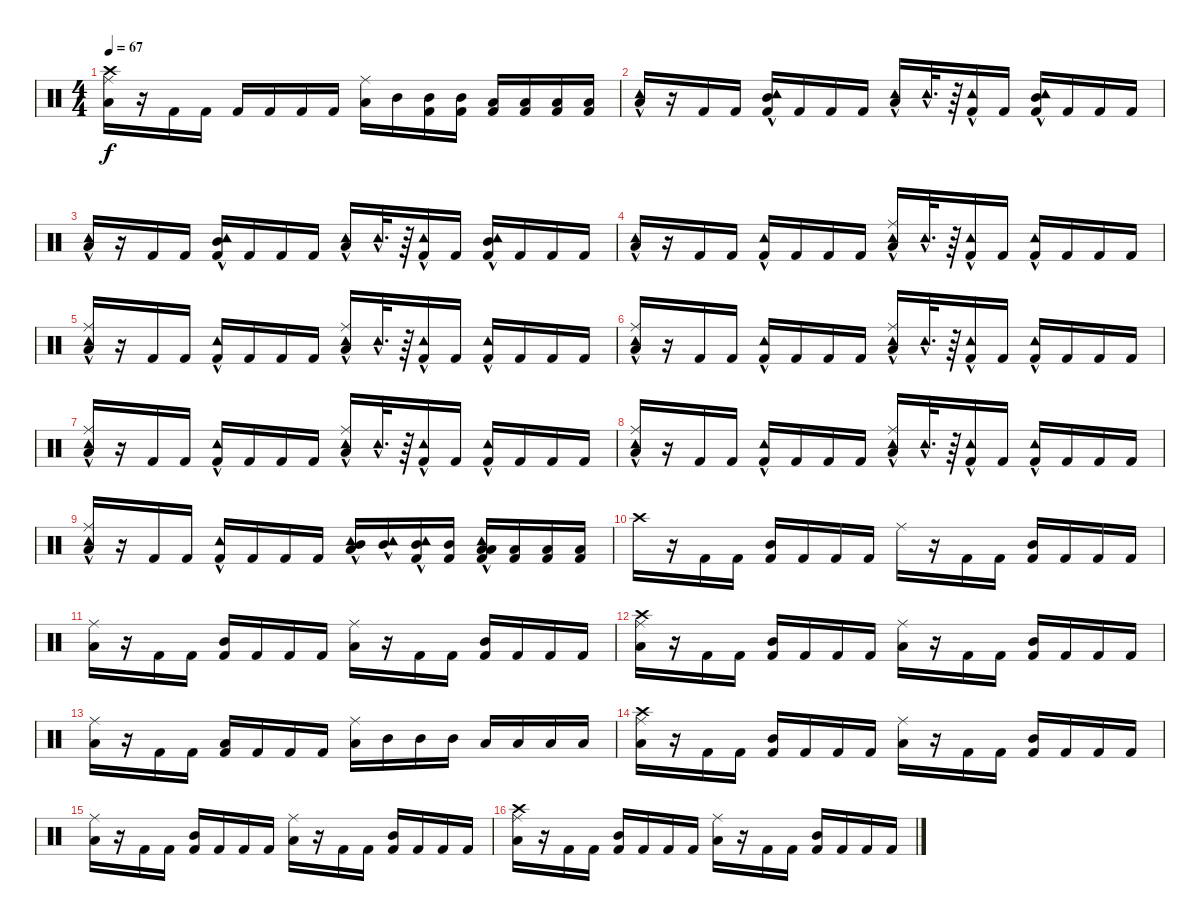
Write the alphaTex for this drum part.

\track "" {instrument percussion}
\staff {score}
\articulation defaults
\ts (4 4)
\tempo 67
\clef neutral
\ks c
("Low Floor Tom (hit)" "Crash high (hit)" "Ride (middle)").16{dy f} r.16 "Kick (hit) 2".16 "Kick (hit) 2".16 "Kick (hit) 2".16 "Kick (hit) 2".16 "Kick (hit) 2".16 "Kick (hit) 2".16 ("Low Floor Tom (hit)" "Ride (middle)").16 "Mid Tom (hit)".16 ("Kick (hit) 2" "Mid Tom (hit)").16 ("Kick (hit) 2" "Mid Tom (hit)").16 ("Kick (hit) 2" "Low Floor Tom (hit)").16 ("Kick (hit) 2" "Low Tom (hit)").16 ("Kick (hit) 2" "Low Tom (hit)").16 ("Kick (hit) 2" "Low Tom (hit)").16 |
("Low Floor Tom (hit)" "Tambourine (hit)"{hac}).16 r.16 "Kick (hit) 2".16 "Kick (hit) 2".16 ("Kick (hit) 2" "Mid Tom (hit)" "Tambourine (hit)"{hac}).16 "Kick (hit) 2".16 "Kick (hit) 2".16 "Kick (hit) 2".16 ("Low Floor Tom (hit)" "Tambourine (hit)"{hac}).16 "Tambourine (hit)"{hac}.32{d} r.64 ("Kick (hit) 2" "Tambourine (hit)"{hac}).16 "Kick (hit) 2".16 ("Kick (hit) 2" "Mid Tom (hit)" "Tambourine (hit)"{hac}).16 "Kick (hit) 2".16 "Kick (hit) 2".16 "Kick (hit) 2".16 |
("Low Floor Tom (hit)" "Tambourine (hit)"{hac}).16 r.16 "Kick (hit) 2".16 "Kick (hit) 2".16 ("Kick (hit) 2" "Mid Tom (hit)" "Tambourine (hit)"{hac}).16 "Kick (hit) 2".16 "Kick (hit) 2".16 "Kick (hit) 2".16 ("Low Floor Tom (hit)" "Tambourine (hit)"{hac}).16 "Tambourine (hit)"{hac}.32{d} r.64 ("Kick (hit) 2" "Tambourine (hit)"{hac}).16 "Kick (hit) 2".16 ("Kick (hit) 2" "Mid Tom (hit)" "Tambourine (hit)"{hac}).16 "Kick (hit) 2".16 "Kick (hit) 2".16 "Kick (hit) 2".16 |
("Low Floor Tom (hit)" "Tambourine (hit)"{hac}).16 r.16 "Kick (hit) 2".16 "Kick (hit) 2".16 ("Kick (hit) 2" "Tambourine (hit)"{hac}).16 "Kick (hit) 2".16 "Kick (hit) 2".16 "Kick (hit) 2".16 ("Low Floor Tom (hit)" "Ride (middle)" "Tambourine (hit)"{hac}).16 "Tambourine (hit)"{hac}.32{d} r.64 ("Kick (hit) 2" "Tambourine (hit)"{hac}).16 "Kick (hit) 2".16 ("Kick (hit) 2" "Tambourine (hit)"{hac}).16 "Kick (hit) 2".16 "Kick (hit) 2".16 "Kick (hit) 2".16 |
("Low Floor Tom (hit)" "Ride (middle)" "Tambourine (hit)"{hac}).16 r.16 "Kick (hit) 2".16 "Kick (hit) 2".16 ("Kick (hit) 2" "Tambourine (hit)"{hac}).16 "Kick (hit) 2".16 "Kick (hit) 2".16 "Kick (hit) 2".16 ("Low Floor Tom (hit)" "Ride (middle)" "Tambourine (hit)"{hac}).16 "Tambourine (hit)"{hac}.32{d} r.64 ("Kick (hit) 2" "Tambourine (hit)"{hac}).16 "Kick (hit) 2".16 ("Kick (hit) 2" "Tambourine (hit)"{hac}).16 "Kick (hit) 2".16 "Kick (hit) 2".16 "Kick (hit) 2".16 |
("Low Floor Tom (hit)" "Ride (middle)" "Tambourine (hit)"{hac}).16 r.16 "Kick (hit) 2".16 "Kick (hit) 2".16 ("Kick (hit) 2" "Tambourine (hit)"{hac}).16 "Kick (hit) 2".16 "Kick (hit) 2".16 "Kick (hit) 2".16 ("Low Floor Tom (hit)" "Ride (middle)" "Tambourine (hit)"{hac}).16 "Tambourine (hit)"{hac}.32{d} r.64 ("Kick (hit) 2" "Tambourine (hit)"{hac}).16 "Kick (hit) 2".16 ("Kick (hit) 2" "Tambourine (hit)"{hac}).16 "Kick (hit) 2".16 "Kick (hit) 2".16 "Kick (hit) 2".16 |
("Low Floor Tom (hit)" "Ride (middle)" "Tambourine (hit)"{hac}).16 r.16 "Kick (hit) 2".16 "Kick (hit) 2".16 ("Kick (hit) 2" "Tambourine (hit)"{hac}).16 "Kick (hit) 2".16 "Kick (hit) 2".16 "Kick (hit) 2".16 ("Low Floor Tom (hit)" "Ride (middle)" "Tambourine (hit)"{hac}).16 "Tambourine (hit)"{hac}.32{d} r.64 ("Kick (hit) 2" "Tambourine (hit)"{hac}).16 "Kick (hit) 2".16 ("Kick (hit) 2" "Tambourine (hit)"{hac}).16 "Kick (hit) 2".16 "Kick (hit) 2".16 "Kick (hit) 2".16 |
("Low Floor Tom (hit)" "Ride (middle)" "Tambourine (hit)"{hac}).16 r.16 "Kick (hit) 2".16 "Kick (hit) 2".16 ("Kick (hit) 2" "Tambourine (hit)"{hac}).16 "Kick (hit) 2".16 "Kick (hit) 2".16 "Kick (hit) 2".16 ("Low Floor Tom (hit)" "Ride (middle)" "Tambourine (hit)"{hac}).16 "Tambourine (hit)"{hac}.32{d} r.64 ("Kick (hit) 2" "Tambourine (hit)"{hac}).16 "Kick (hit) 2".16 ("Kick (hit) 2" "Tambourine (hit)"{hac}).16 "Kick (hit) 2".16 "Kick (hit) 2".16 "Kick (hit) 2".16 |
("Low Floor Tom (hit)" "Ride (middle)" "Tambourine (hit)"{hac}).16 r.16 "Kick (hit) 2".16 "Kick (hit) 2".16 ("Kick (hit) 2" "Tambourine (hit)"{hac}).16 "Kick (hit) 2".16 "Kick (hit) 2".16 "Kick (hit) 2".16 ("Low Floor Tom (hit)" "Mid Tom (hit)" "Tambourine (hit)"{hac}).16 ("Mid Tom (hit)" "Tambourine (hit)"{hac}).16 ("Kick (hit) 2" "Mid Tom (hit)" "Tambourine (hit)"{hac}).16 ("Kick (hit) 2" "Mid Tom (hit)").16 ("Kick (hit) 2" "Low Floor Tom (hit)" "Low Tom (hit)" "Tambourine (hit)"{hac}).16 ("Kick (hit) 2" "Low Tom (hit)").16 ("Kick (hit) 2" "Low Tom (hit)").16 ("Kick (hit) 2" "Low Tom (hit)").16 |
"Crash high (hit)".16 r.16 "Kick (hit) 2".16 "Kick (hit) 2".16 ("Mid Tom (hit)" "Kick (hit) 2").16 "Kick (hit) 2".16 "Kick (hit) 2".16 "Kick (hit) 2".16 "Ride (middle)".16 r.16 "Kick (hit) 2".16 "Kick (hit) 2".16 ("Mid Tom (hit)" "Kick (hit) 2").16 "Kick (hit) 2".16 "Kick (hit) 2".16 "Kick (hit) 2".16 |
("Low Floor Tom (hit)" "Ride (middle)").16 r.16 "Kick (hit) 2".16 "Kick (hit) 2".16 ("Mid Tom (hit)" "Kick (hit) 2").16 "Kick (hit) 2".16 "Kick (hit) 2".16 "Kick (hit) 2".16 ("Low Floor Tom (hit)" "Ride (middle)").16 r.16 "Kick (hit) 2".16 "Kick (hit) 2".16 ("Mid Tom (hit)" "Kick (hit) 2").16 "Kick (hit) 2".16 "Kick (hit) 2".16 "Kick (hit) 2".16 |
("Low Floor Tom (hit)" "Crash high (hit)" "Ride (middle)").16 r.16 "Kick (hit) 2".16 "Kick (hit) 2".16 ("Mid Tom (hit)" "Kick (hit) 2").16 "Kick (hit) 2".16 "Kick (hit) 2".16 "Kick (hit) 2".16 ("Low Floor Tom (hit)" "Ride (middle)").16 r.16 "Kick (hit) 2".16 "Kick (hit) 2".16 ("Mid Tom (hit)" "Kick (hit) 2").16 "Kick (hit) 2".16 "Kick (hit) 2".16 "Kick (hit) 2".16 |
("Low Floor Tom (hit)" "Ride (middle)").16 r.16 "Kick (hit) 2".16 "Kick (hit) 2".16 ("Kick (hit) 2" "Low Tom (hit)").16 "Kick (hit) 2".16 "Kick (hit) 2".16 "Kick (hit) 2".16 ("Low Floor Tom (hit)" "Ride (middle)").16 "Mid Tom (hit)".16 "Mid Tom (hit)".16 "Mid Tom (hit)".16 "Low Floor Tom (hit)".16 "Low Tom (hit)".16 "Low Tom (hit)".16 "Low Tom (hit)".16 |
("Low Floor Tom (hit)" "Crash high (hit)" "Ride (middle)").16 r.16 "Kick (hit) 2".16 "Kick (hit) 2".16 ("Mid Tom (hit)" "Kick (hit) 2").16 "Kick (hit) 2".16 "Kick (hit) 2".16 "Kick (hit) 2".16 ("Low Floor Tom (hit)" "Ride (middle)").16 r.16 "Kick (hit) 2".16 "Kick (hit) 2".16 ("Mid Tom (hit)" "Kick (hit) 2").16 "Kick (hit) 2".16 "Kick (hit) 2".16 "Kick (hit) 2".16 |
("Low Floor Tom (hit)" "Ride (middle)").16 r.16 "Kick (hit) 2".16 "Kick (hit) 2".16 ("Mid Tom (hit)" "Kick (hit) 2").16 "Kick (hit) 2".16 "Kick (hit) 2".16 "Kick (hit) 2".16 ("Low Floor Tom (hit)" "Ride (middle)").16 r.16 "Kick (hit) 2".16 "Kick (hit) 2".16 ("Mid Tom (hit)" "Kick (hit) 2").16 "Kick (hit) 2".16 "Kick (hit) 2".16 "Kick (hit) 2".16 |
("Crash high (hit)" "Low Floor Tom (hit)" "Ride (middle)").16 r.16 "Kick (hit) 2".16 "Kick (hit) 2".16 ("Mid Tom (hit)" "Kick (hit) 2").16 "Kick (hit) 2".16 "Kick (hit) 2".16 "Kick (hit) 2".16 ("Low Floor Tom (hit)" "Ride (middle)").16 r.16 "Kick (hit) 2".16 "Kick (hit) 2".16 ("Mid Tom (hit)" "Kick (hit) 2").16 "Kick (hit) 2".16 "Kick (hit) 2".16 "Kick (hit) 2".16
